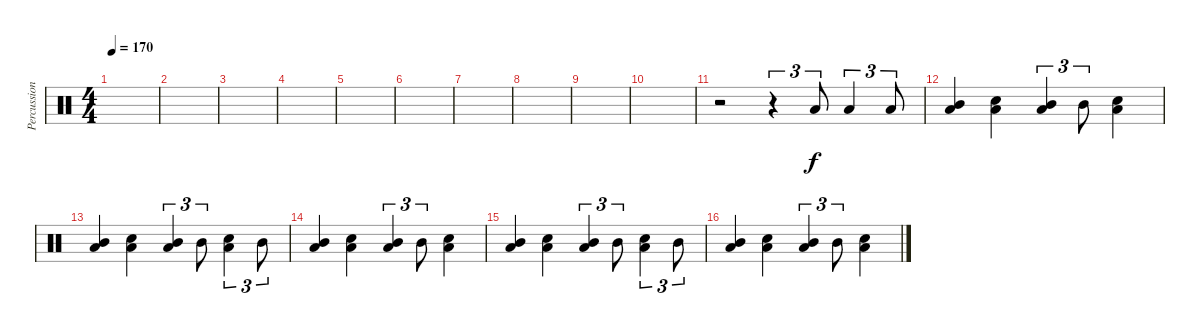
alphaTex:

\track ("Percussion" "Percussion") {instrument percussion}
\staff {score}
\articulation defaults
\ts (4 4)
\tempo 170
\clef neutral
\ks c
|
|
|
|
|
|
|
|
|
|
r.2 r.4{tu (3 2)} "Low Floor Tom (hit)".8{tu (3 2)} "Low Floor Tom (hit)".4{tu (3 2)} "Low Floor Tom (hit)".8{tu (3 2)} |
("Low Floor Tom (hit)" "Mid Tom (hit)").4 ("Low Floor Tom (hit)" "Snare (hit) 2").4 ("Low Floor Tom (hit)" "Mid Tom (hit)").4{tu (3 2)} "Mid Tom (hit)".8{tu (3 2)} ("Low Floor Tom (hit)" "Snare (hit) 2").4 |
("Low Floor Tom (hit)" "Mid Tom (hit)").4 ("Low Floor Tom (hit)" "Snare (hit) 2").4 ("Low Floor Tom (hit)" "Mid Tom (hit)").4{tu (3 2)} "Mid Tom (hit)".8{tu (3 2)} ("Low Floor Tom (hit)" "Snare (hit) 2").4{tu (3 2)} "Mid Tom (hit)".8{tu (3 2)} |
("Low Floor Tom (hit)" "Mid Tom (hit)").4 ("Low Floor Tom (hit)" "Snare (hit) 2").4 ("Low Floor Tom (hit)" "Mid Tom (hit)").4{tu (3 2)} "Mid Tom (hit)".8{tu (3 2)} ("Low Floor Tom (hit)" "Snare (hit) 2").4 |
("Low Floor Tom (hit)" "Mid Tom (hit)").4 ("Low Floor Tom (hit)" "Snare (hit) 2").4 ("Low Floor Tom (hit)" "Mid Tom (hit)").4{tu (3 2)} "Mid Tom (hit)".8{tu (3 2)} ("Low Floor Tom (hit)" "Snare (hit) 2").4{tu (3 2)} "Mid Tom (hit)".8{tu (3 2)} |
("Low Floor Tom (hit)" "Mid Tom (hit)").4 ("Low Floor Tom (hit)" "Snare (hit) 2").4 ("Low Floor Tom (hit)" "Mid Tom (hit)").4{tu (3 2)} "Mid Tom (hit)".8{tu (3 2)} ("Low Floor Tom (hit)" "Snare (hit) 2").4
